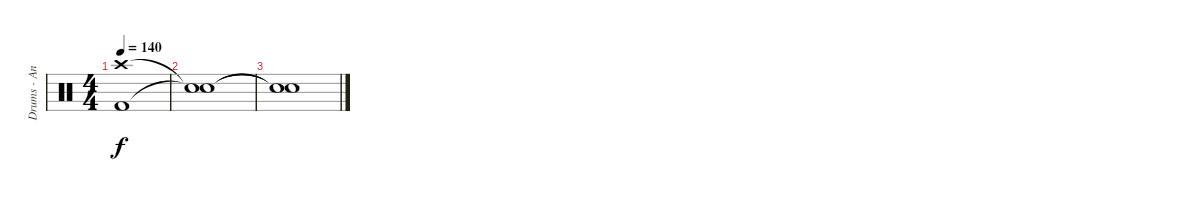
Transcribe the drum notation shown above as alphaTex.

\track ("Drums - Andy Strachan" "Drums - An") {instrument percussion}
\staff {score}
\articulation defaults
\ts (4 4)
\tempo 140
\clef neutral
\ks c
("Kick (hit) 2" "Crash high (hit)").1{dy f} |
("Snare (hit)"{t} "Snare (hit)"{t}).1 |
("Snare (hit)"{t} "Snare (hit)"{t}).1
